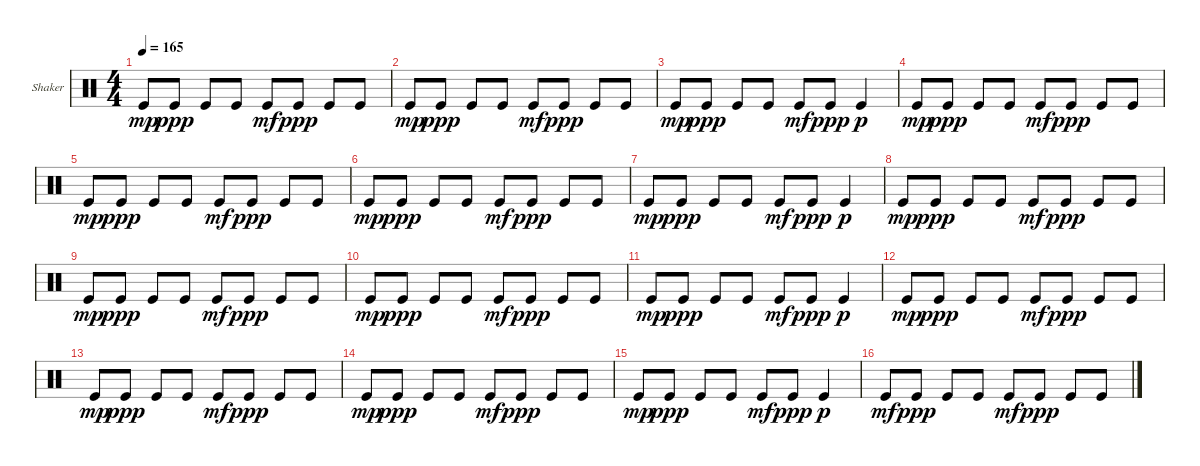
\defaultSystemsLayout 4
\bracketExtendMode groupsimilarinstruments
\firstSystemTrackNameOrientation horizontal
\otherSystemsTrackNameOrientation horizontal
\track ("Shaker" "Shaker") {instrument percussion}
\staff {score}
\articulation defaults
\ts (4 4)
\tempo 165
\clef neutral
\ks c "Kick (hit)".8{dy mp} "Kick (hit)".8{dy ppp} "Kick (hit)".8 "Kick (hit)".8 "Kick (hit)".8{dy mf} "Kick (hit)".8{dy ppp} "Kick (hit)".8 "Kick (hit)".8
|
"Kick (hit)".8{dy mp} "Kick (hit)".8{dy ppp} "Kick (hit)".8 "Kick (hit)".8 "Kick (hit)".8{dy mf} "Kick (hit)".8{dy ppp} "Kick (hit)".8 "Kick (hit)".8 |
"Kick (hit)".8{dy mp} "Kick (hit)".8{dy ppp} "Kick (hit)".8 "Kick (hit)".8 "Kick (hit)".8{dy mf} "Kick (hit)".8{dy ppp} "Kick (hit)".4{dy p} |
"Kick (hit)".8{dy mp} "Kick (hit)".8{dy ppp} "Kick (hit)".8 "Kick (hit)".8 "Kick (hit)".8{dy mf} "Kick (hit)".8{dy ppp} "Kick (hit)".8 "Kick (hit)".8 |
"Kick (hit)".8{dy mp} "Kick (hit)".8{dy ppp} "Kick (hit)".8 "Kick (hit)".8 "Kick (hit)".8{dy mf} "Kick (hit)".8{dy ppp} "Kick (hit)".8 "Kick (hit)".8 |
"Kick (hit)".8{dy mp} "Kick (hit)".8{dy ppp} "Kick (hit)".8 "Kick (hit)".8 "Kick (hit)".8{dy mf} "Kick (hit)".8{dy ppp} "Kick (hit)".8 "Kick (hit)".8 |
"Kick (hit)".8{dy mp} "Kick (hit)".8{dy ppp} "Kick (hit)".8 "Kick (hit)".8 "Kick (hit)".8{dy mf} "Kick (hit)".8{dy ppp} "Kick (hit)".4{dy p} |
"Kick (hit)".8{dy mp} "Kick (hit)".8{dy ppp} "Kick (hit)".8 "Kick (hit)".8 "Kick (hit)".8{dy mf} "Kick (hit)".8{dy ppp} "Kick (hit)".8 "Kick (hit)".8 |
"Kick (hit)".8{dy mp} "Kick (hit)".8{dy ppp} "Kick (hit)".8 "Kick (hit)".8 "Kick (hit)".8{dy mf} "Kick (hit)".8{dy ppp} "Kick (hit)".8 "Kick (hit)".8 |
"Kick (hit)".8{dy mp} "Kick (hit)".8{dy ppp} "Kick (hit)".8 "Kick (hit)".8 "Kick (hit)".8{dy mf} "Kick (hit)".8{dy ppp} "Kick (hit)".8 "Kick (hit)".8 |
"Kick (hit)".8{dy mp} "Kick (hit)".8{dy ppp} "Kick (hit)".8 "Kick (hit)".8 "Kick (hit)".8{dy mf} "Kick (hit)".8{dy ppp} "Kick (hit)".4{dy p} |
"Kick (hit)".8{dy mp} "Kick (hit)".8{dy ppp} "Kick (hit)".8 "Kick (hit)".8 "Kick (hit)".8{dy mf} "Kick (hit)".8{dy ppp} "Kick (hit)".8 "Kick (hit)".8 |
"Kick (hit)".8{dy mp} "Kick (hit)".8{dy ppp} "Kick (hit)".8 "Kick (hit)".8 "Kick (hit)".8{dy mf} "Kick (hit)".8{dy ppp} "Kick (hit)".8 "Kick (hit)".8 |
"Kick (hit)".8{dy mp} "Kick (hit)".8{dy ppp} "Kick (hit)".8 "Kick (hit)".8 "Kick (hit)".8{dy mf} "Kick (hit)".8{dy ppp} "Kick (hit)".8 "Kick (hit)".8 |
"Kick (hit)".8{dy mp} "Kick (hit)".8{dy ppp} "Kick (hit)".8 "Kick (hit)".8 "Kick (hit)".8{dy mf} "Kick (hit)".8{dy ppp} "Kick (hit)".4{dy p} |
"Kick (hit)".8{dy mf} "Kick (hit)".8{dy ppp} "Kick (hit)".8 "Kick (hit)".8 "Kick (hit)".8{dy mf} "Kick (hit)".8{dy ppp} "Kick (hit)".8 "Kick (hit)".8
